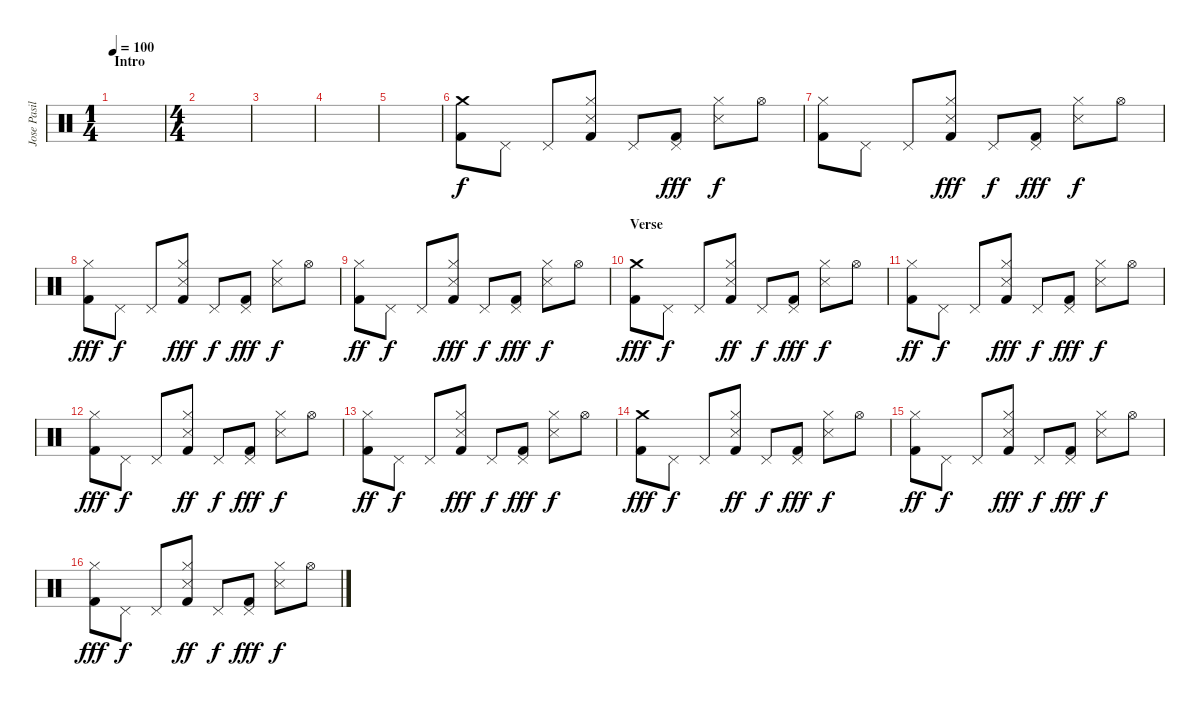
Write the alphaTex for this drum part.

\track ("Jose Pasillas III" "Jose Pasil") {instrument percussion}
\staff {score}
\articulation defaults
\ts (1 4)
\section ("" "Intro")
\tempo 100
\clef neutral
\ks c
|
\ts (4 4)
|
|
|
|
("Crash medium (hit)" "Kick (hit) 2").8 "Pedal Hi-Hat (hit)".8{dy f} "Pedal Hi-Hat (hit)".8 ("Hi-Hat (closed)" "Snare (side stick) 3" "Kick (hit) 2").8 "Pedal Hi-Hat (hit)".8 ("Pedal Hi-Hat (hit)" "Kick (hit) 2").8{dy fff} ("Hi-Hat (closed)" "Snare (side stick) 3").8{dy f} "Hi-Hat (open)".8 |
("Hi-Hat (closed)" "Kick (hit) 2").8 "Pedal Hi-Hat (hit)".8 "Pedal Hi-Hat (hit)".8 ("Hi-Hat (closed)" "Snare (side stick) 3" "Kick (hit) 2").8{dy fff} "Pedal Hi-Hat (hit)".8{dy f} ("Pedal Hi-Hat (hit)" "Kick (hit) 2").8{dy fff} ("Hi-Hat (closed)" "Snare (side stick) 3").8{dy f} "Hi-Hat (open)".8 |
("Hi-Hat (closed)" "Kick (hit) 2").8{dy fff} "Pedal Hi-Hat (hit)".8{dy f} "Pedal Hi-Hat (hit)".8 ("Hi-Hat (closed)" "Snare (side stick) 3" "Kick (hit) 2").8{dy fff} "Pedal Hi-Hat (hit)".8{dy f} ("Pedal Hi-Hat (hit)" "Kick (hit) 2").8{dy fff} ("Hi-Hat (closed)" "Snare (side stick) 3").8{dy f} "Hi-Hat (open)".8 |
("Hi-Hat (closed)" "Kick (hit) 2").8{dy ff} "Pedal Hi-Hat (hit)".8{dy f} "Pedal Hi-Hat (hit)".8 ("Hi-Hat (closed)" "Snare (side stick) 3" "Kick (hit) 2").8{dy fff} "Pedal Hi-Hat (hit)".8{dy f} ("Pedal Hi-Hat (hit)" "Kick (hit) 2").8{dy fff} ("Hi-Hat (closed)" "Snare (side stick) 3").8{dy f} "Hi-Hat (open)".8 |
\section ("" "Verse")
("Crash medium (hit)" "Kick (hit) 2").8{dy fff} "Pedal Hi-Hat (hit)".8{dy f} "Pedal Hi-Hat (hit)".8 ("Hi-Hat (closed)" "Snare (side stick) 3" "Kick (hit) 2").8{dy ff} "Pedal Hi-Hat (hit)".8{dy f} ("Pedal Hi-Hat (hit)" "Kick (hit) 2").8{dy fff} ("Hi-Hat (closed)" "Snare (side stick) 3").8{dy f} "Hi-Hat (open)".8 |
("Hi-Hat (closed)" "Kick (hit) 2").8{dy ff} "Pedal Hi-Hat (hit)".8{dy f} "Pedal Hi-Hat (hit)".8 ("Hi-Hat (closed)" "Snare (side stick) 3" "Kick (hit) 2").8{dy fff} "Pedal Hi-Hat (hit)".8{dy f} ("Pedal Hi-Hat (hit)" "Kick (hit) 2").8{dy fff} ("Hi-Hat (closed)" "Snare (side stick) 3").8{dy f} "Hi-Hat (open)".8 |
("Hi-Hat (closed)" "Kick (hit) 2").8{dy fff} "Pedal Hi-Hat (hit)".8{dy f} "Pedal Hi-Hat (hit)".8 ("Hi-Hat (closed)" "Snare (side stick) 3" "Kick (hit) 2").8{dy ff} "Pedal Hi-Hat (hit)".8{dy f} ("Pedal Hi-Hat (hit)" "Kick (hit) 2").8{dy fff} ("Hi-Hat (closed)" "Snare (side stick) 3").8{dy f} "Hi-Hat (open)".8 |
("Hi-Hat (closed)" "Kick (hit) 2").8{dy ff} "Pedal Hi-Hat (hit)".8{dy f} "Pedal Hi-Hat (hit)".8 ("Hi-Hat (closed)" "Snare (side stick) 3" "Kick (hit) 2").8{dy fff} "Pedal Hi-Hat (hit)".8{dy f} ("Pedal Hi-Hat (hit)" "Kick (hit) 2").8{dy fff} ("Hi-Hat (closed)" "Snare (side stick) 3").8{dy f} "Hi-Hat (open)".8 |
("Crash medium (hit)" "Kick (hit) 2").8{dy fff} "Pedal Hi-Hat (hit)".8{dy f} "Pedal Hi-Hat (hit)".8 ("Hi-Hat (closed)" "Snare (side stick) 3" "Kick (hit) 2").8{dy ff} "Pedal Hi-Hat (hit)".8{dy f} ("Pedal Hi-Hat (hit)" "Kick (hit) 2").8{dy fff} ("Hi-Hat (closed)" "Snare (side stick) 3").8{dy f} "Hi-Hat (open)".8 |
("Hi-Hat (closed)" "Kick (hit) 2").8{dy ff} "Pedal Hi-Hat (hit)".8{dy f} "Pedal Hi-Hat (hit)".8 ("Hi-Hat (closed)" "Snare (side stick) 3" "Kick (hit) 2").8{dy fff} "Pedal Hi-Hat (hit)".8{dy f} ("Pedal Hi-Hat (hit)" "Kick (hit) 2").8{dy fff} ("Hi-Hat (closed)" "Snare (side stick) 3").8{dy f} "Hi-Hat (open)".8 |
("Hi-Hat (closed)" "Kick (hit) 2").8{dy fff} "Pedal Hi-Hat (hit)".8{dy f} "Pedal Hi-Hat (hit)".8 ("Hi-Hat (closed)" "Snare (side stick) 3" "Kick (hit) 2").8{dy ff} "Pedal Hi-Hat (hit)".8{dy f} ("Pedal Hi-Hat (hit)" "Kick (hit) 2").8{dy fff} ("Hi-Hat (closed)" "Snare (side stick) 3").8{dy f} "Hi-Hat (open)".8
